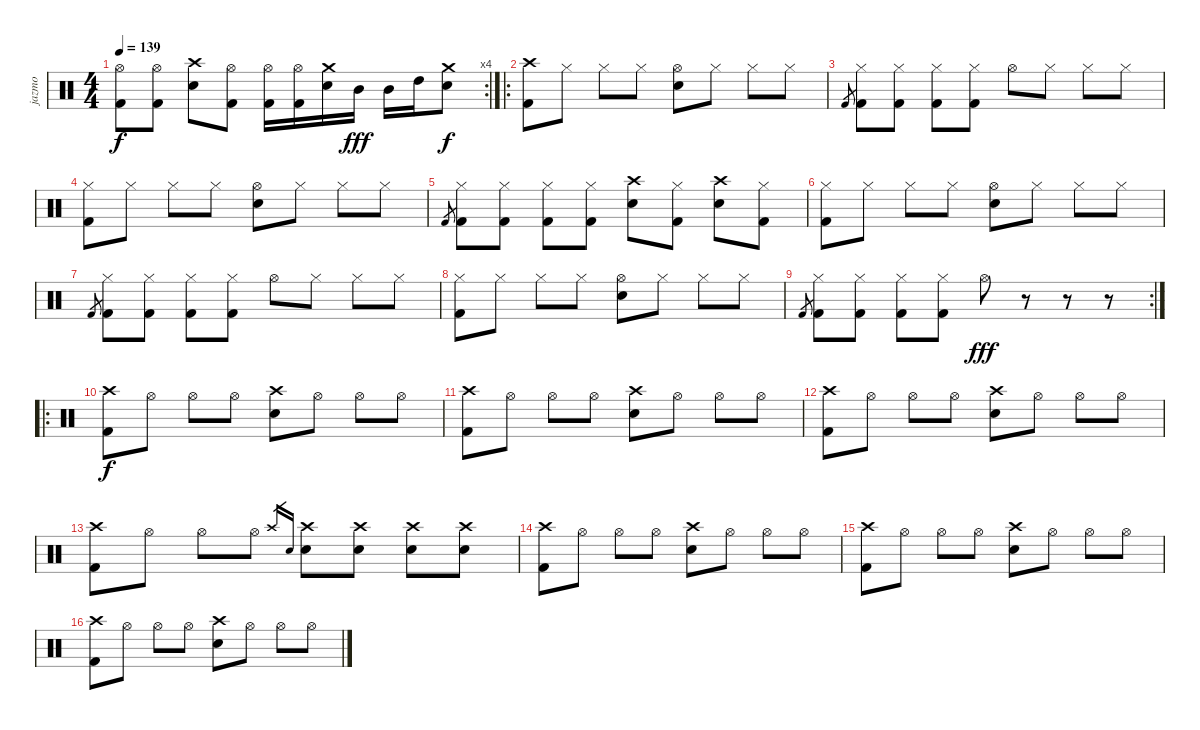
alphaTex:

\track ("jazmo" "jazmo") {instrument percussion}
\staff {score}
\articulation defaults
\rc 4
\ts (4 4)
\tempo 139
\clef neutral
\ks c
("Hi-Hat (open)" "Kick (hit) 2").8{dy f} ("Hi-Hat (open)" "Kick (hit) 2").8 ("Crash high (hit)" "Snare (hit) 2").8 ("Hi-Hat (open)" "Kick (hit) 2").8 ("Hi-Hat (open)" "Kick (hit) 2").16 ("Hi-Hat (open)" "Kick (hit) 2").16 ("Crash medium (hit)" "Snare (hit) 2").16 "Mid Tom (hit)".16{dy fff} "Mid Tom (hit)".16 "High Tom (hit)".16 ("Crash medium (hit)" "Snare (hit) 2").8{dy f} |
\ro
("Crash high (hit)" "Kick (hit) 2").8 "Hi-Hat (closed)".8 "Hi-Hat (closed)".8 "Hi-Hat (closed)".8 ("Hi-Hat (open)" "Snare (hit) 2").8 "Hi-Hat (closed)".8 "Hi-Hat (closed)".8 "Hi-Hat (closed)".8 |
"Kick (hit) 2".8{gr} ("Hi-Hat (closed)" "Kick (hit) 2").8 ("Hi-Hat (closed)" "Kick (hit) 2").8 ("Hi-Hat (closed)" "Kick (hit) 2").8 ("Hi-Hat (closed)" "Kick (hit) 2").8 "Hi-Hat (open)".8 "Hi-Hat (closed)".8 "Hi-Hat (closed)".8 "Hi-Hat (closed)".8 |
("Hi-Hat (closed)" "Kick (hit) 2").8 "Hi-Hat (closed)".8 "Hi-Hat (closed)".8 "Hi-Hat (closed)".8 ("Hi-Hat (open)" "Snare (hit) 2").8 "Hi-Hat (closed)".8 "Hi-Hat (closed)".8 "Hi-Hat (closed)".8 |
"Kick (hit) 2".8{gr} ("Hi-Hat (closed)" "Kick (hit) 2").8 ("Hi-Hat (closed)" "Kick (hit) 2").8 ("Hi-Hat (closed)" "Kick (hit) 2").8 ("Hi-Hat (closed)" "Kick (hit) 2").8 ("Crash high (hit)" "Snare (hit) 2").8 ("Hi-Hat (closed)" "Kick (hit) 2").8 ("Crash high (hit)" "Snare (hit) 2").8 ("Hi-Hat (closed)" "Kick (hit) 2").8 |
("Hi-Hat (closed)" "Kick (hit) 2").8 "Hi-Hat (closed)".8 "Hi-Hat (closed)".8 "Hi-Hat (closed)".8 ("Hi-Hat (open)" "Snare (hit) 2").8 "Hi-Hat (closed)".8 "Hi-Hat (closed)".8 "Hi-Hat (closed)".8 |
"Kick (hit) 2".8{gr} ("Hi-Hat (closed)" "Kick (hit) 2").8 ("Hi-Hat (closed)" "Kick (hit) 2").8 ("Hi-Hat (closed)" "Kick (hit) 2").8 ("Hi-Hat (closed)" "Kick (hit) 2").8 "Hi-Hat (open)".8 "Hi-Hat (closed)".8 "Hi-Hat (closed)".8 "Hi-Hat (closed)".8 |
("Hi-Hat (closed)" "Kick (hit) 2").8 "Hi-Hat (closed)".8 "Hi-Hat (closed)".8 "Hi-Hat (closed)".8 ("Hi-Hat (open)" "Snare (hit) 2").8 "Hi-Hat (closed)".8 "Hi-Hat (closed)".8 "Hi-Hat (closed)".8 |
\rc 2 "Kick (hit) 2".8{gr}
("Hi-Hat (closed)" "Kick (hit) 2").8 ("Hi-Hat (closed)" "Kick (hit) 2").8 ("Hi-Hat (closed)" "Kick (hit) 2").8 ("Hi-Hat (closed)" "Kick (hit) 2").8 "Hi-Hat (open)".8{dy fff} r.8 r.8 r.8 |
\ro
("Crash high (hit)" "Kick (hit) 2").8{dy f} "Hi-Hat (open)".8 "Hi-Hat (open)".8 "Hi-Hat (open)".8 ("Crash high (hit)" "Snare (hit) 2").8 "Hi-Hat (open)".8 "Hi-Hat (open)".8 "Hi-Hat (open)".8 |
("Crash high (hit)" "Kick (hit) 2").8 "Hi-Hat (open)".8 "Hi-Hat (open)".8 "Hi-Hat (open)".8 ("Crash high (hit)" "Snare (hit) 2").8 "Hi-Hat (open)".8 "Hi-Hat (open)".8 "Hi-Hat (open)".8 |
("Crash high (hit)" "Kick (hit) 2").8 "Hi-Hat (open)".8 "Hi-Hat (open)".8 "Hi-Hat (open)".8 ("Crash high (hit)" "Snare (hit) 2").8 "Hi-Hat (open)".8 "Hi-Hat (open)".8 "Hi-Hat (open)".8 |
("Crash high (hit)" "Kick (hit) 2").8 "Hi-Hat (open)".8 "Hi-Hat (open)".8 "Hi-Hat (open)".8 "Crash high (hit)".16{gr} "Snare (hit) 2".16{gr} ("Crash high (hit)" "Snare (hit) 2").8 ("Crash high (hit)" "Snare (hit) 2").8 ("Crash high (hit)" "Snare (hit) 2").8 ("Crash high (hit)" "Snare (hit) 2").8 |
("Crash high (hit)" "Kick (hit) 2").8 "Hi-Hat (open)".8 "Hi-Hat (open)".8 "Hi-Hat (open)".8 ("Crash high (hit)" "Snare (hit) 2").8 "Hi-Hat (open)".8 "Hi-Hat (open)".8 "Hi-Hat (open)".8 |
("Crash high (hit)" "Kick (hit) 2").8 "Hi-Hat (open)".8 "Hi-Hat (open)".8 "Hi-Hat (open)".8 ("Crash high (hit)" "Snare (hit) 2").8 "Hi-Hat (open)".8 "Hi-Hat (open)".8 "Hi-Hat (open)".8 |
("Crash high (hit)" "Kick (hit) 2").8 "Hi-Hat (open)".8 "Hi-Hat (open)".8 "Hi-Hat (open)".8 ("Crash high (hit)" "Snare (hit) 2").8 "Hi-Hat (open)".8 "Hi-Hat (open)".8 "Hi-Hat (open)".8
